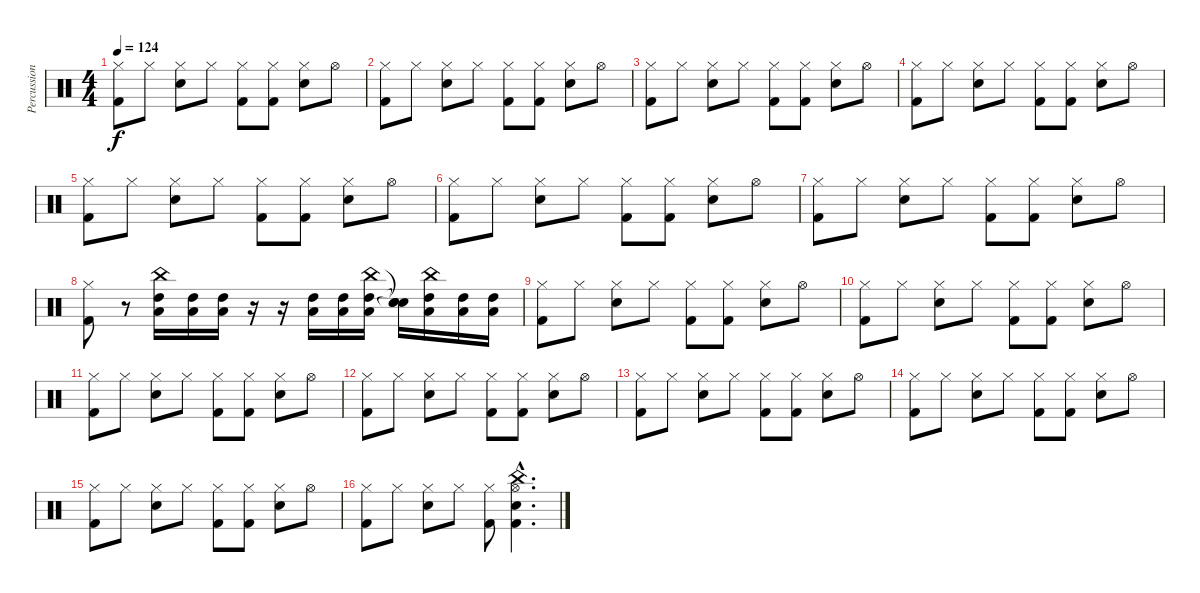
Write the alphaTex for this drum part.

\track ("Percussions" "Percussion") {instrument percussion}
\staff {score}
\articulation defaults
\ts (4 4)
\tempo 124
\clef neutral
\ks c
("Hi-Hat (closed)" "Kick (hit) 2").8{dy f} "Hi-Hat (closed)".8 ("Hi-Hat (closed)" "Snare (hit) 2").8 "Hi-Hat (closed)".8 ("Hi-Hat (closed)" "Kick (hit) 2").8 ("Hi-Hat (closed)" "Kick (hit) 2").8 ("Hi-Hat (closed)" "Snare (hit) 2").8 "Hi-Hat (open)".8 |
("Hi-Hat (closed)" "Kick (hit) 2").8 "Hi-Hat (closed)".8 ("Hi-Hat (closed)" "Snare (hit) 2").8 "Hi-Hat (closed)".8 ("Hi-Hat (closed)" "Kick (hit) 2").8 ("Hi-Hat (closed)" "Kick (hit) 2").8 ("Hi-Hat (closed)" "Snare (hit) 2").8 "Hi-Hat (open)".8 |
("Hi-Hat (closed)" "Kick (hit) 2").8 "Hi-Hat (closed)".8 ("Hi-Hat (closed)" "Snare (hit) 2").8 "Hi-Hat (closed)".8 ("Hi-Hat (closed)" "Kick (hit) 2").8 ("Hi-Hat (closed)" "Kick (hit) 2").8 ("Hi-Hat (closed)" "Snare (hit) 2").8 "Hi-Hat (open)".8 |
("Hi-Hat (closed)" "Kick (hit) 2").8 "Hi-Hat (closed)".8 ("Hi-Hat (closed)" "Snare (hit) 2").8 "Hi-Hat (closed)".8 ("Hi-Hat (closed)" "Kick (hit) 2").8 ("Hi-Hat (closed)" "Kick (hit) 2").8 ("Hi-Hat (closed)" "Snare (hit) 2").8 "Hi-Hat (open)".8 |
("Hi-Hat (closed)" "Kick (hit) 2").8 "Hi-Hat (closed)".8 ("Hi-Hat (closed)" "Snare (hit) 2").8 "Hi-Hat (closed)".8 ("Hi-Hat (closed)" "Kick (hit) 2").8 ("Hi-Hat (closed)" "Kick (hit) 2").8 ("Hi-Hat (closed)" "Snare (hit) 2").8 "Hi-Hat (open)".8 |
("Hi-Hat (closed)" "Kick (hit) 2").8 "Hi-Hat (closed)".8 ("Hi-Hat (closed)" "Snare (hit) 2").8 "Hi-Hat (closed)".8 ("Hi-Hat (closed)" "Kick (hit) 2").8 ("Hi-Hat (closed)" "Kick (hit) 2").8 ("Hi-Hat (closed)" "Snare (hit) 2").8 "Hi-Hat (open)".8 |
("Hi-Hat (closed)" "Kick (hit) 2").8 "Hi-Hat (closed)".8 ("Hi-Hat (closed)" "Snare (hit) 2").8 "Hi-Hat (closed)".8 ("Hi-Hat (closed)" "Kick (hit) 2").8 ("Hi-Hat (closed)" "Kick (hit) 2").8 ("Hi-Hat (closed)" "Snare (hit) 2").8 "Hi-Hat (open)".8 |
("Hi-Hat (closed)" "Kick (hit) 2").8 r.8 ("China (hit)" "High Tom (hit)" "Low Tom (hit)").16 ("High Tom (hit)" "Low Tom (hit)").16 ("High Tom (hit)" "Low Tom (hit)").16 r.16 r.16 ("High Tom (hit)" "Low Tom (hit)").16 ("High Tom (hit)" "Low Tom (hit)").16 ("China (hit)" "High Tom (hit)" "Low Tom (hit)").16 ("Snare (hit)"{t} "Snare (hit)"{t} "Snare (hit)"{t}).16 ("China (hit)" "High Tom (hit)" "Low Tom (hit)").16 ("High Tom (hit)" "Low Tom (hit)").16 ("High Tom (hit)" "Low Tom (hit)").16 |
("Hi-Hat (closed)" "Kick (hit) 2").8 "Hi-Hat (closed)".8 ("Hi-Hat (closed)" "Snare (hit) 2").8 "Hi-Hat (closed)".8 ("Hi-Hat (closed)" "Kick (hit) 2").8 ("Hi-Hat (closed)" "Kick (hit) 2").8 ("Hi-Hat (closed)" "Snare (hit) 2").8 "Hi-Hat (open)".8 |
("Hi-Hat (closed)" "Kick (hit) 2").8 "Hi-Hat (closed)".8 ("Hi-Hat (closed)" "Snare (hit) 2").8 "Hi-Hat (closed)".8 ("Hi-Hat (closed)" "Kick (hit) 2").8 ("Hi-Hat (closed)" "Kick (hit) 2").8 ("Hi-Hat (closed)" "Snare (hit) 2").8 "Hi-Hat (open)".8 |
("Hi-Hat (closed)" "Kick (hit) 2").8 "Hi-Hat (closed)".8 ("Hi-Hat (closed)" "Snare (hit) 2").8 "Hi-Hat (closed)".8 ("Hi-Hat (closed)" "Kick (hit) 2").8 ("Hi-Hat (closed)" "Kick (hit) 2").8 ("Hi-Hat (closed)" "Snare (hit) 2").8 "Hi-Hat (open)".8 |
("Hi-Hat (closed)" "Kick (hit) 2").8 "Hi-Hat (closed)".8 ("Hi-Hat (closed)" "Snare (hit) 2").8 "Hi-Hat (closed)".8 ("Hi-Hat (closed)" "Kick (hit) 2").8 ("Hi-Hat (closed)" "Kick (hit) 2").8 ("Hi-Hat (closed)" "Snare (hit) 2").8 "Hi-Hat (open)".8 |
("Hi-Hat (closed)" "Kick (hit) 2").8 "Hi-Hat (closed)".8 ("Hi-Hat (closed)" "Snare (hit) 2").8 "Hi-Hat (closed)".8 ("Hi-Hat (closed)" "Kick (hit) 2").8 ("Hi-Hat (closed)" "Kick (hit) 2").8 ("Hi-Hat (closed)" "Snare (hit) 2").8 "Hi-Hat (open)".8 |
("Hi-Hat (closed)" "Kick (hit) 2").8 "Hi-Hat (closed)".8 ("Hi-Hat (closed)" "Snare (hit) 2").8 "Hi-Hat (closed)".8 ("Hi-Hat (closed)" "Kick (hit) 2").8 ("Hi-Hat (closed)" "Kick (hit) 2").8 ("Hi-Hat (closed)" "Snare (hit) 2").8 "Hi-Hat (open)".8 |
("Hi-Hat (closed)" "Kick (hit) 2").8 "Hi-Hat (closed)".8 ("Hi-Hat (closed)" "Snare (hit) 2").8 "Hi-Hat (closed)".8 ("Hi-Hat (closed)" "Kick (hit) 2").8 ("Hi-Hat (closed)" "Kick (hit) 2").8 ("Hi-Hat (closed)" "Snare (hit) 2").8 "Hi-Hat (open)".8 |
("Hi-Hat (closed)" "Kick (hit) 2").8 "Hi-Hat (closed)".8 ("Hi-Hat (closed)" "Snare (hit) 2").8 "Hi-Hat (closed)".8 ("Hi-Hat (closed)" "Kick (hit) 2").8 ("Hi-Hat (open)"{hac} "China (hit)"{hac} "Snare (hit) 2"{hac} "Kick (hit) 2"{hac}).4{d}
